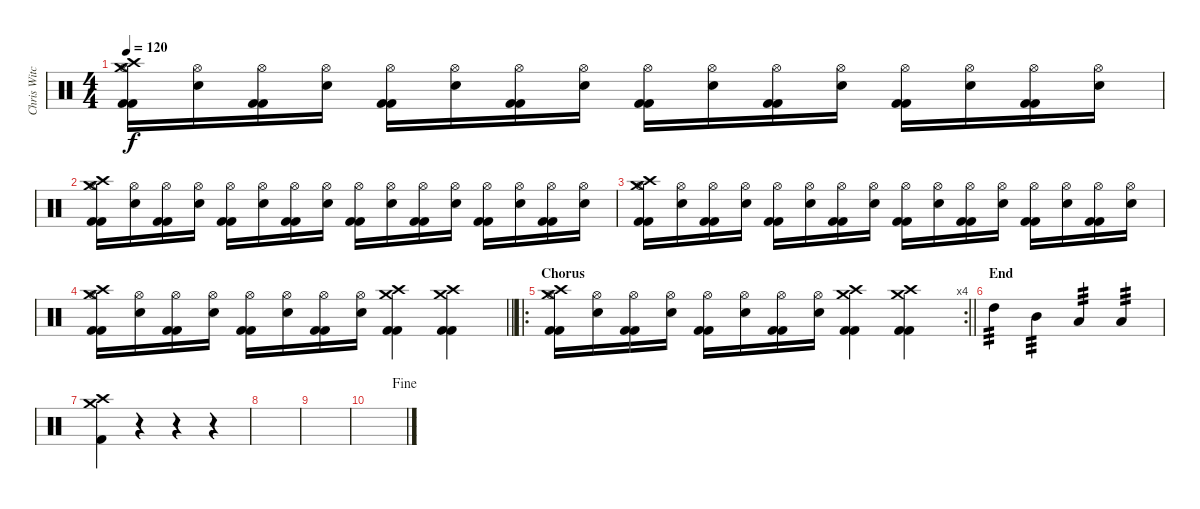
\track ("Chris Witchhunter (R.I.P.)" "Chris Witc") {instrument percussion}
\staff {score}
\articulation defaults
\ts (4 4)
\tempo 120
\clef neutral
\ks c
("Crash medium (hit)" "Crash high (hit)" "Hi-Hat (open)" "Kick (hit) 2" "Kick (hit) 2").16{dy f} ("Hi-Hat (open)" "Electric Snare (hit)").16 ("Hi-Hat (open)" "Kick (hit) 2" "Kick (hit) 2").16 ("Hi-Hat (open)" "Electric Snare (hit)").16 ("Hi-Hat (open)" "Kick (hit) 2" "Kick (hit) 2").16 ("Hi-Hat (open)" "Electric Snare (hit)").16 ("Hi-Hat (open)" "Kick (hit) 2" "Kick (hit) 2").16 ("Hi-Hat (open)" "Electric Snare (hit)").16 ("Hi-Hat (open)" "Kick (hit) 2" "Kick (hit) 2").16 ("Hi-Hat (open)" "Electric Snare (hit)").16 ("Hi-Hat (open)" "Kick (hit) 2" "Kick (hit) 2").16 ("Hi-Hat (open)" "Electric Snare (hit)").16 ("Hi-Hat (open)" "Kick (hit) 2" "Kick (hit) 2").16 ("Hi-Hat (open)" "Electric Snare (hit)").16 ("Hi-Hat (open)" "Kick (hit) 2" "Kick (hit) 2").16 ("Hi-Hat (open)" "Electric Snare (hit)").16 |
("Crash medium (hit)" "Crash high (hit)" "Hi-Hat (open)" "Kick (hit) 2" "Kick (hit) 2").16 ("Hi-Hat (open)" "Electric Snare (hit)").16 ("Hi-Hat (open)" "Kick (hit) 2" "Kick (hit) 2").16 ("Hi-Hat (open)" "Electric Snare (hit)").16 ("Hi-Hat (open)" "Kick (hit) 2" "Kick (hit) 2").16 ("Hi-Hat (open)" "Electric Snare (hit)").16 ("Hi-Hat (open)" "Kick (hit) 2" "Kick (hit) 2").16 ("Hi-Hat (open)" "Electric Snare (hit)").16 ("Hi-Hat (open)" "Kick (hit) 2" "Kick (hit) 2").16 ("Hi-Hat (open)" "Electric Snare (hit)").16 ("Hi-Hat (open)" "Kick (hit) 2" "Kick (hit) 2").16 ("Hi-Hat (open)" "Electric Snare (hit)").16 ("Hi-Hat (open)" "Kick (hit) 2" "Kick (hit) 2").16 ("Hi-Hat (open)" "Electric Snare (hit)").16 ("Hi-Hat (open)" "Kick (hit) 2" "Kick (hit) 2").16 ("Hi-Hat (open)" "Electric Snare (hit)").16 |
("Crash medium (hit)" "Crash high (hit)" "Hi-Hat (open)" "Kick (hit) 2" "Kick (hit) 2").16 ("Hi-Hat (open)" "Electric Snare (hit)").16 ("Hi-Hat (open)" "Kick (hit) 2" "Kick (hit) 2").16 ("Hi-Hat (open)" "Electric Snare (hit)").16 ("Hi-Hat (open)" "Kick (hit) 2" "Kick (hit) 2").16 ("Hi-Hat (open)" "Electric Snare (hit)").16 ("Hi-Hat (open)" "Kick (hit) 2" "Kick (hit) 2").16 ("Hi-Hat (open)" "Electric Snare (hit)").16 ("Hi-Hat (open)" "Kick (hit) 2" "Kick (hit) 2").16 ("Hi-Hat (open)" "Electric Snare (hit)").16 ("Hi-Hat (open)" "Kick (hit) 2" "Kick (hit) 2").16 ("Hi-Hat (open)" "Electric Snare (hit)").16 ("Hi-Hat (open)" "Kick (hit) 2" "Kick (hit) 2").16 ("Hi-Hat (open)" "Electric Snare (hit)").16 ("Hi-Hat (open)" "Kick (hit) 2" "Kick (hit) 2").16 ("Hi-Hat (open)" "Electric Snare (hit)").16 |
\barLineRight lightlight
("Crash medium (hit)" "Crash high (hit)" "Hi-Hat (open)" "Kick (hit) 2" "Kick (hit) 2").16 ("Hi-Hat (open)" "Electric Snare (hit)").16 ("Hi-Hat (open)" "Kick (hit) 2" "Kick (hit) 2").16 ("Hi-Hat (open)" "Electric Snare (hit)").16 ("Hi-Hat (open)" "Kick (hit) 2" "Kick (hit) 2").16 ("Hi-Hat (open)" "Electric Snare (hit)").16 ("Hi-Hat (open)" "Kick (hit) 2" "Kick (hit) 2").16 ("Hi-Hat (open)" "Electric Snare (hit)").16 ("Crash high (hit)" "Crash medium (hit)" "Kick (hit) 2" "Kick (hit) 2").4 ("Crash high (hit)" "Crash medium (hit)" "Kick (hit) 2" "Kick (hit) 2").4 |
\ro
\rc 4
\section ("" "Chorus")
\barLineRight lightlight
("Crash medium (hit)" "Crash high (hit)" "Hi-Hat (open)" "Kick (hit) 2" "Kick (hit) 2").16 ("Hi-Hat (open)" "Electric Snare (hit)").16 ("Hi-Hat (open)" "Kick (hit) 2" "Kick (hit) 2").16 ("Hi-Hat (open)" "Electric Snare (hit)").16 ("Hi-Hat (open)" "Kick (hit) 2" "Kick (hit) 2").16 ("Hi-Hat (open)" "Electric Snare (hit)").16 ("Hi-Hat (open)" "Kick (hit) 2" "Kick (hit) 2").16 ("Hi-Hat (open)" "Electric Snare (hit)").16 ("Crash high (hit)" "Crash medium (hit)" "Kick (hit) 2" "Kick (hit) 2").4 ("Crash high (hit)" "Crash medium (hit)" "Kick (hit) 2" "Kick (hit) 2").4 |
\section ("" "End")
"High Tom (hit)".4{tp 3} "Mid Tom (hit)".4{tp 3} "Low Tom (hit)".4{tp 3} "Low Floor Tom (hit)".4{tp 3} |
("Crash high (hit)" "Crash medium (hit)" "Kick (hit) 2").4 r.4 r.4 r.4 |
|
|
\jump fine
